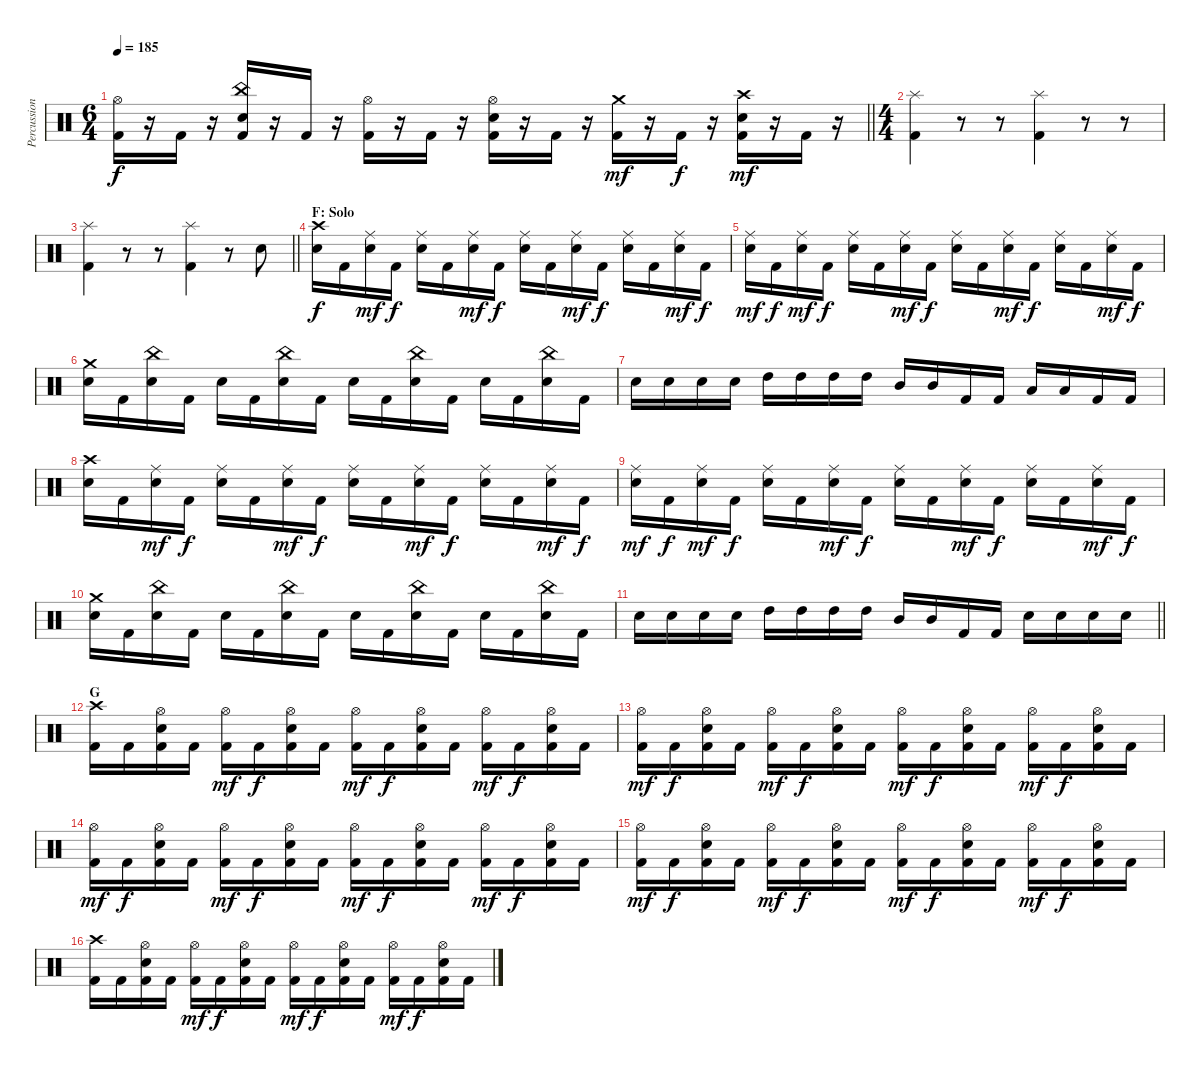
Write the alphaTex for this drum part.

\track ("Percussion" "Percussion") {instrument percussion}
\staff {score}
\articulation defaults
\ts (6 4)
\tempo 185
\clef neutral
\barLineRight lightlight
\ks c
("Hi-Hat (open)" "Kick (hit) 2").16{dy f} r.16 "Kick (hit) 2".16 r.16 ("China (hit)" "Snare (hit) 2" "Kick (hit) 2").16 r.16 "Kick (hit) 2".16 r.16 ("Hi-Hat (open)" "Kick (hit) 2").16 r.16 "Kick (hit) 2".16 r.16 ("Hi-Hat (open)" "Snare (hit) 2" "Kick (hit) 2").16 r.16 "Kick (hit) 2".16 r.16 ("Crash medium (hit)" "Kick (hit) 2").16{dy mf} r.16 "Kick (hit) 2".16{dy f} r.16 ("Crash high (hit)" "Snare (hit) 2" "Kick (hit) 2").16{dy mf} r.16 "Kick (hit) 2".16 r.16 |
\ts (4 4)
\section ("" "")
("Splash (hit)" "Kick (hit) 2").4 r.8 r.8 ("Splash (hit)" "Kick (hit) 2").4 r.8 r.8 |
\barLineRight lightlight
("Splash (hit)" "Kick (hit) 2").4 r.8 r.8 ("Splash (hit)" "Kick (hit) 2").4 r.8 "Snare (hit) 2".8 |
\section ("" "F: Solo")
("Crash high (hit)" "Snare (hit) 2").16{dy f} "Kick (hit) 2".16 ("Ride (middle)" "Snare (hit) 2").16{dy mf} "Kick (hit) 2".16{dy f} ("Ride (middle)" "Snare (hit) 2").16 "Kick (hit) 2".16 ("Ride (middle)" "Snare (hit) 2").16{dy mf} "Kick (hit) 2".16{dy f} ("Ride (middle)" "Snare (hit) 2").16 "Kick (hit) 2".16 ("Ride (middle)" "Snare (hit) 2").16{dy mf} "Kick (hit) 2".16{dy f} ("Ride (middle)" "Snare (hit) 2").16 "Kick (hit) 2".16 ("Ride (middle)" "Snare (hit) 2").16{dy mf} "Kick (hit) 2".16{dy f} |
("Ride (middle)" "Snare (hit) 2").16{dy mf} "Kick (hit) 2".16{dy f} ("Ride (middle)" "Snare (hit) 2").16{dy mf} "Kick (hit) 2".16{dy f} ("Ride (middle)" "Snare (hit) 2").16 "Kick (hit) 2".16 ("Ride (middle)" "Snare (hit) 2").16{dy mf} "Kick (hit) 2".16{dy f} ("Ride (middle)" "Snare (hit) 2").16 "Kick (hit) 2".16 ("Ride (middle)" "Snare (hit) 2").16{dy mf} "Kick (hit) 2".16{dy f} ("Ride (middle)" "Snare (hit) 2").16 "Kick (hit) 2".16 ("Ride (middle)" "Snare (hit) 2").16{dy mf} "Kick (hit) 2".16{dy f} |
("Crash medium (hit)" "Snare (hit) 2").16 "Kick (hit) 2".16 ("China (hit)" "Snare (hit) 2").16 "Kick (hit) 2".16 "Snare (hit) 2".16 "Kick (hit) 2".16 ("China (hit)" "Snare (hit) 2").16 "Kick (hit) 2".16 "Snare (hit) 2".16 "Kick (hit) 2".16 ("China (hit)" "Snare (hit) 2").16 "Kick (hit) 2".16 "Snare (hit) 2".16 "Kick (hit) 2".16 ("China (hit)" "Snare (hit) 2").16 "Kick (hit) 2".16 |
"Snare (hit) 2".16 "Snare (hit) 2".16 "Snare (hit) 2".16 "Snare (hit) 2".16 "High Tom (hit)".16 "High Tom (hit)".16 "High Tom (hit)".16 "High Tom (hit)".16 "Mid Tom (hit)".16 "Mid Tom (hit)".16 "Kick (hit) 2".16 "Kick (hit) 2".16 "Low Tom (hit)".16 "Low Tom (hit)".16 "Kick (hit) 2".16 "Kick (hit) 2".16 |
("Crash high (hit)" "Snare (hit) 2").16 "Kick (hit) 2".16 ("Ride (middle)" "Snare (hit) 2").16{dy mf} "Kick (hit) 2".16{dy f} ("Ride (middle)" "Snare (hit) 2").16 "Kick (hit) 2".16 ("Ride (middle)" "Snare (hit) 2").16{dy mf} "Kick (hit) 2".16{dy f} ("Ride (middle)" "Snare (hit) 2").16 "Kick (hit) 2".16 ("Ride (middle)" "Snare (hit) 2").16{dy mf} "Kick (hit) 2".16{dy f} ("Ride (middle)" "Snare (hit) 2").16 "Kick (hit) 2".16 ("Ride (middle)" "Snare (hit) 2").16{dy mf} "Kick (hit) 2".16{dy f} |
("Ride (middle)" "Snare (hit) 2").16{dy mf} "Kick (hit) 2".16{dy f} ("Ride (middle)" "Snare (hit) 2").16{dy mf} "Kick (hit) 2".16{dy f} ("Ride (middle)" "Snare (hit) 2").16 "Kick (hit) 2".16 ("Ride (middle)" "Snare (hit) 2").16{dy mf} "Kick (hit) 2".16{dy f} ("Ride (middle)" "Snare (hit) 2").16 "Kick (hit) 2".16 ("Ride (middle)" "Snare (hit) 2").16{dy mf} "Kick (hit) 2".16{dy f} ("Ride (middle)" "Snare (hit) 2").16 "Kick (hit) 2".16 ("Ride (middle)" "Snare (hit) 2").16{dy mf} "Kick (hit) 2".16{dy f} |
("Crash medium (hit)" "Snare (hit) 2").16 "Kick (hit) 2".16 ("China (hit)" "Snare (hit) 2").16 "Kick (hit) 2".16 "Snare (hit) 2".16 "Kick (hit) 2".16 ("China (hit)" "Snare (hit) 2").16 "Kick (hit) 2".16 "Snare (hit) 2".16 "Kick (hit) 2".16 ("China (hit)" "Snare (hit) 2").16 "Kick (hit) 2".16 "Snare (hit) 2".16 "Kick (hit) 2".16 ("China (hit)" "Snare (hit) 2").16 "Kick (hit) 2".16 |
\barLineRight lightlight "Snare (hit) 2".16 "Snare (hit) 2".16 "Snare (hit) 2".16 "Snare (hit) 2".16 "High Tom (hit)".16 "High Tom (hit)".16 "High Tom (hit)".16 "High Tom (hit)".16 "Mid Tom (hit)".16 "Mid Tom (hit)".16 "Kick (hit) 2".16 "Kick (hit) 2".16 "Snare (hit) 2".16 "Snare (hit) 2".16 "Snare (hit) 2".16 "Snare (hit) 2".16
|
\section ("" "G")
("Crash high (hit)" "Kick (hit) 2").16 "Kick (hit) 2".16 ("Hi-Hat (open)" "Snare (hit) 2" "Kick (hit) 2").16 "Kick (hit) 2".16 ("Hi-Hat (open)" "Kick (hit) 2").16{dy mf} "Kick (hit) 2".16{dy f} ("Hi-Hat (open)" "Snare (hit) 2" "Kick (hit) 2").16 "Kick (hit) 2".16 ("Hi-Hat (open)" "Kick (hit) 2").16{dy mf} "Kick (hit) 2".16{dy f} ("Hi-Hat (open)" "Snare (hit) 2" "Kick (hit) 2").16 "Kick (hit) 2".16 ("Hi-Hat (open)" "Kick (hit) 2").16{dy mf} "Kick (hit) 2".16{dy f} ("Hi-Hat (open)" "Snare (hit) 2" "Kick (hit) 2").16 "Kick (hit) 2".16 |
("Hi-Hat (open)" "Kick (hit) 2").16{dy mf} "Kick (hit) 2".16{dy f} ("Hi-Hat (open)" "Snare (hit) 2" "Kick (hit) 2").16 "Kick (hit) 2".16 ("Hi-Hat (open)" "Kick (hit) 2").16{dy mf} "Kick (hit) 2".16{dy f} ("Hi-Hat (open)" "Snare (hit) 2" "Kick (hit) 2").16 "Kick (hit) 2".16 ("Hi-Hat (open)" "Kick (hit) 2").16{dy mf} "Kick (hit) 2".16{dy f} ("Hi-Hat (open)" "Snare (hit) 2" "Kick (hit) 2").16 "Kick (hit) 2".16 ("Hi-Hat (open)" "Kick (hit) 2").16{dy mf} "Kick (hit) 2".16{dy f} ("Hi-Hat (open)" "Snare (hit) 2" "Kick (hit) 2").16 "Kick (hit) 2".16 |
("Hi-Hat (open)" "Kick (hit) 2").16{dy mf} "Kick (hit) 2".16{dy f} ("Hi-Hat (open)" "Snare (hit) 2" "Kick (hit) 2").16 "Kick (hit) 2".16 ("Hi-Hat (open)" "Kick (hit) 2").16{dy mf} "Kick (hit) 2".16{dy f} ("Hi-Hat (open)" "Snare (hit) 2" "Kick (hit) 2").16 "Kick (hit) 2".16 ("Hi-Hat (open)" "Kick (hit) 2").16{dy mf} "Kick (hit) 2".16{dy f} ("Hi-Hat (open)" "Snare (hit) 2" "Kick (hit) 2").16 "Kick (hit) 2".16 ("Hi-Hat (open)" "Kick (hit) 2").16{dy mf} "Kick (hit) 2".16{dy f} ("Hi-Hat (open)" "Snare (hit) 2" "Kick (hit) 2").16 "Kick (hit) 2".16 |
("Hi-Hat (open)" "Kick (hit) 2").16{dy mf} "Kick (hit) 2".16{dy f} ("Hi-Hat (open)" "Snare (hit) 2" "Kick (hit) 2").16 "Kick (hit) 2".16 ("Hi-Hat (open)" "Kick (hit) 2").16{dy mf} "Kick (hit) 2".16{dy f} ("Hi-Hat (open)" "Snare (hit) 2" "Kick (hit) 2").16 "Kick (hit) 2".16 ("Hi-Hat (open)" "Kick (hit) 2").16{dy mf} "Kick (hit) 2".16{dy f} ("Hi-Hat (open)" "Snare (hit) 2" "Kick (hit) 2").16 "Kick (hit) 2".16 ("Hi-Hat (open)" "Kick (hit) 2").16{dy mf} "Kick (hit) 2".16{dy f} ("Hi-Hat (open)" "Snare (hit) 2" "Kick (hit) 2").16 "Kick (hit) 2".16 |
("Crash high (hit)" "Kick (hit) 2").16 "Kick (hit) 2".16 ("Hi-Hat (open)" "Snare (hit) 2" "Kick (hit) 2").16 "Kick (hit) 2".16 ("Hi-Hat (open)" "Kick (hit) 2").16{dy mf} "Kick (hit) 2".16{dy f} ("Hi-Hat (open)" "Snare (hit) 2" "Kick (hit) 2").16 "Kick (hit) 2".16 ("Hi-Hat (open)" "Kick (hit) 2").16{dy mf} "Kick (hit) 2".16{dy f} ("Hi-Hat (open)" "Snare (hit) 2" "Kick (hit) 2").16 "Kick (hit) 2".16 ("Hi-Hat (open)" "Kick (hit) 2").16{dy mf} "Kick (hit) 2".16{dy f} ("Hi-Hat (open)" "Snare (hit) 2" "Kick (hit) 2").16 "Kick (hit) 2".16
